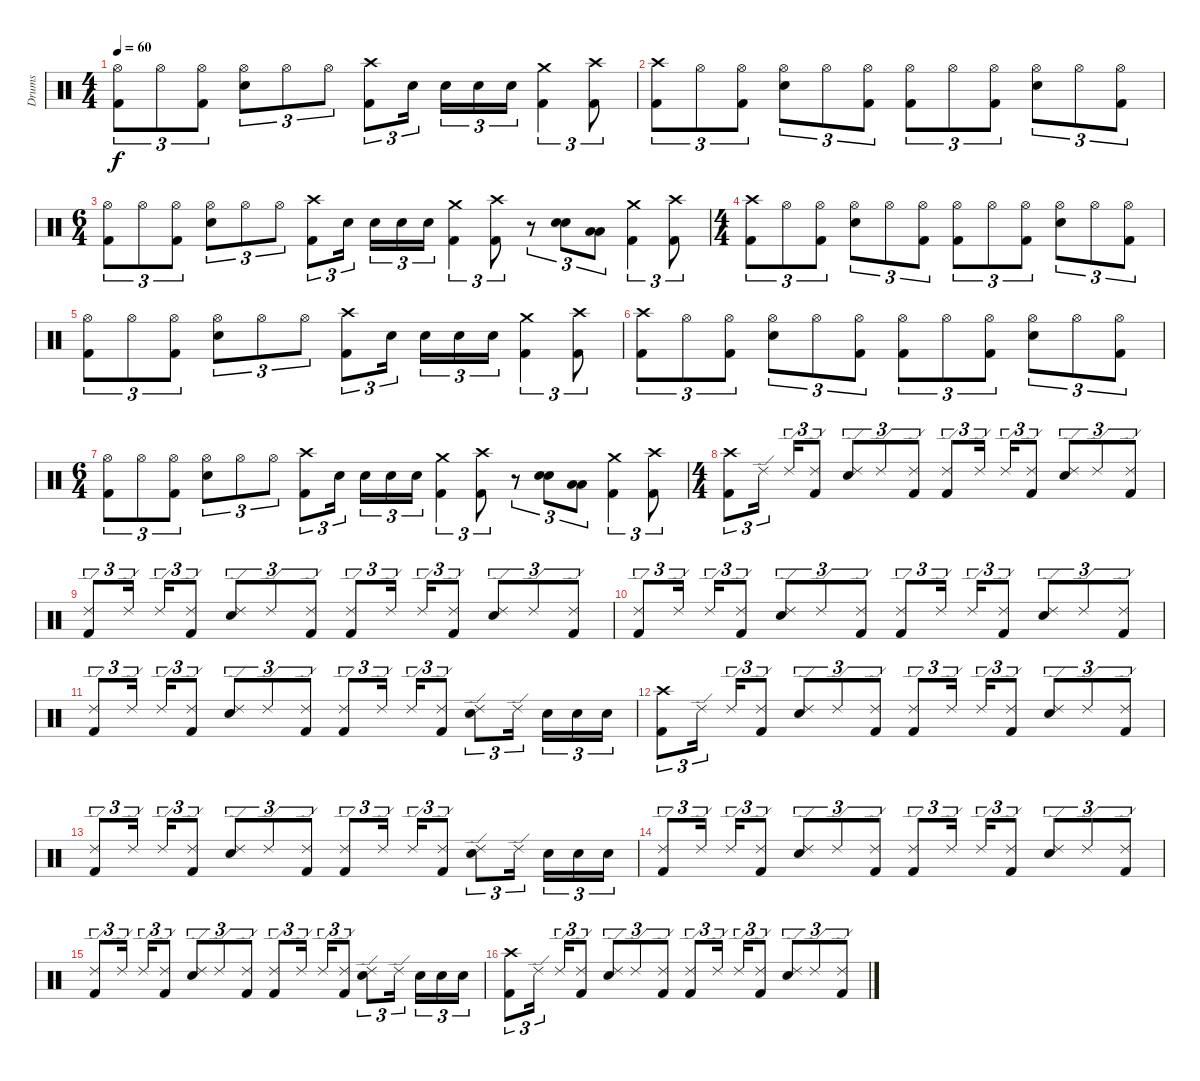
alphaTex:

\track ("Drums" "Drums") {instrument percussion}
\staff {score}
\articulation defaults
\ts (4 4)
\tempo 60
\clef neutral
\ks c
("Hi-Hat (open)" "Kick (hit) 2").8{tu (3 2) dy f} "Hi-Hat (open)".8{tu (3 2)} ("Hi-Hat (open)" "Kick (hit) 2").8{tu (3 2)} ("Hi-Hat (open)" "Electric Snare (hit)").8{tu (3 2)} "Hi-Hat (open)".8{tu (3 2)} "Hi-Hat (open)".8{tu (3 2)} ("Crash high (hit)" "Kick (hit) 2").8{tu (3 2)} "Electric Snare (hit)".16{tu (3 2)} "Electric Snare (hit)".16{tu (3 2)} "Electric Snare (hit)".16{tu (3 2)} "Electric Snare (hit)".16{tu (3 2)} ("Crash medium (hit)" "Kick (hit) 2").4{tu (3 2)} ("Crash high (hit)" "Kick (hit) 2").8{tu (3 2)} |
("Crash high (hit)" "Kick (hit) 2").8{tu (3 2)} "Hi-Hat (open)".8{tu (3 2)} ("Hi-Hat (open)" "Kick (hit) 2").8{tu (3 2)} ("Hi-Hat (open)" "Electric Snare (hit)").8{tu (3 2)} "Hi-Hat (open)".8{tu (3 2)} ("Hi-Hat (open)" "Kick (hit) 2").8{tu (3 2)} ("Hi-Hat (open)" "Kick (hit) 2").8{tu (3 2)} "Hi-Hat (open)".8{tu (3 2)} ("Hi-Hat (open)" "Kick (hit) 2").8{tu (3 2)} ("Hi-Hat (open)" "Electric Snare (hit)").8{tu (3 2)} "Hi-Hat (open)".8{tu (3 2)} ("Hi-Hat (open)" "Kick (hit) 2").8{tu (3 2)} |
\ts (6 4)
("Hi-Hat (open)" "Kick (hit) 2").8{tu (3 2)} "Hi-Hat (open)".8{tu (3 2)} ("Hi-Hat (open)" "Kick (hit) 2").8{tu (3 2)} ("Hi-Hat (open)" "Electric Snare (hit)").8{tu (3 2)} "Hi-Hat (open)".8{tu (3 2)} "Hi-Hat (open)".8{tu (3 2)} ("Crash high (hit)" "Kick (hit) 2").8{tu (3 2)} "Electric Snare (hit)".16{tu (3 2)} "Electric Snare (hit)".16{tu (3 2)} "Electric Snare (hit)".16{tu (3 2)} "Electric Snare (hit)".16{tu (3 2)} ("Crash medium (hit)" "Kick (hit) 2").4{tu (3 2)} ("Crash high (hit)" "Kick (hit) 2").8{tu (3 2)} r.8{tu (3 2)} ("Electric Snare (hit)" "Electric Snare (hit)").8{tu (3 2) bu 60} ("Low Tom (hit)" "Low Tom (hit)").8{tu (3 2) bu 60} ("Crash medium (hit)" "Kick (hit) 2").4{tu (3 2)} ("Crash high (hit)" "Kick (hit) 2").8{tu (3 2)} |
\ts (4 4)
("Crash high (hit)" "Kick (hit) 2").8{tu (3 2)} "Hi-Hat (open)".8{tu (3 2)} ("Hi-Hat (open)" "Kick (hit) 2").8{tu (3 2)} ("Hi-Hat (open)" "Electric Snare (hit)").8{tu (3 2)} "Hi-Hat (open)".8{tu (3 2)} ("Hi-Hat (open)" "Kick (hit) 2").8{tu (3 2)} ("Hi-Hat (open)" "Kick (hit) 2").8{tu (3 2)} "Hi-Hat (open)".8{tu (3 2)} ("Hi-Hat (open)" "Kick (hit) 2").8{tu (3 2)} ("Hi-Hat (open)" "Electric Snare (hit)").8{tu (3 2)} "Hi-Hat (open)".8{tu (3 2)} ("Hi-Hat (open)" "Kick (hit) 2").8{tu (3 2)} |
("Hi-Hat (open)" "Kick (hit) 2").8{tu (3 2)} "Hi-Hat (open)".8{tu (3 2)} ("Hi-Hat (open)" "Kick (hit) 2").8{tu (3 2)} ("Hi-Hat (open)" "Electric Snare (hit)").8{tu (3 2)} "Hi-Hat (open)".8{tu (3 2)} "Hi-Hat (open)".8{tu (3 2)} ("Crash high (hit)" "Kick (hit) 2").8{tu (3 2)} "Electric Snare (hit)".16{tu (3 2)} "Electric Snare (hit)".16{tu (3 2)} "Electric Snare (hit)".16{tu (3 2)} "Electric Snare (hit)".16{tu (3 2)} ("Crash medium (hit)" "Kick (hit) 2").4{tu (3 2)} ("Crash high (hit)" "Kick (hit) 2").8{tu (3 2)} |
("Crash high (hit)" "Kick (hit) 2").8{tu (3 2)} "Hi-Hat (open)".8{tu (3 2)} ("Hi-Hat (open)" "Kick (hit) 2").8{tu (3 2)} ("Hi-Hat (open)" "Electric Snare (hit)").8{tu (3 2)} "Hi-Hat (open)".8{tu (3 2)} ("Hi-Hat (open)" "Kick (hit) 2").8{tu (3 2)} ("Hi-Hat (open)" "Kick (hit) 2").8{tu (3 2)} "Hi-Hat (open)".8{tu (3 2)} ("Hi-Hat (open)" "Kick (hit) 2").8{tu (3 2)} ("Hi-Hat (open)" "Electric Snare (hit)").8{tu (3 2)} "Hi-Hat (open)".8{tu (3 2)} ("Hi-Hat (open)" "Kick (hit) 2").8{tu (3 2)} |
\ts (6 4)
("Hi-Hat (open)" "Kick (hit) 2").8{tu (3 2)} "Hi-Hat (open)".8{tu (3 2)} ("Hi-Hat (open)" "Kick (hit) 2").8{tu (3 2)} ("Hi-Hat (open)" "Electric Snare (hit)").8{tu (3 2)} "Hi-Hat (open)".8{tu (3 2)} "Hi-Hat (open)".8{tu (3 2)} ("Crash high (hit)" "Kick (hit) 2").8{tu (3 2)} "Electric Snare (hit)".16{tu (3 2)} "Electric Snare (hit)".16{tu (3 2)} "Electric Snare (hit)".16{tu (3 2)} "Electric Snare (hit)".16{tu (3 2)} ("Crash medium (hit)" "Kick (hit) 2").4{tu (3 2)} ("Crash high (hit)" "Kick (hit) 2").8{tu (3 2)} r.8{tu (3 2)} ("Electric Snare (hit)" "Electric Snare (hit)").8{tu (3 2) bu 60} ("Low Tom (hit)" "Low Tom (hit)").8{tu (3 2) bu 60} ("Crash medium (hit)" "Kick (hit) 2").4{tu (3 2)} ("Crash high (hit)" "Kick (hit) 2").8{tu (3 2)} |
\ts (4 4)
("Crash high (hit)" "Kick (hit) 2").8{tu (3 2)} "Ride (edge) 2".16{tu (3 2)} "Ride (edge) 2".16{tu (3 2)} ("Ride (edge) 2" "Kick (hit) 2").8{tu (3 2)} ("Ride (edge) 2" "Electric Snare (hit)").8{tu (3 2)} "Ride (edge) 2".8{tu (3 2)} ("Ride (edge) 2" "Kick (hit) 2").8{tu (3 2)} ("Ride (edge) 2" "Kick (hit) 2").8{tu (3 2)} "Ride (edge) 2".16{tu (3 2)} "Ride (edge) 2".16{tu (3 2)} ("Ride (edge) 2" "Kick (hit) 2").8{tu (3 2)} ("Ride (edge) 2" "Electric Snare (hit)").8{tu (3 2)} "Ride (edge) 2".8{tu (3 2)} ("Ride (edge) 2" "Kick (hit) 2").8{tu (3 2)} |
("Ride (edge) 2" "Kick (hit) 2").8{tu (3 2)} "Ride (edge) 2".16{tu (3 2)} "Ride (edge) 2".16{tu (3 2)} ("Ride (edge) 2" "Kick (hit) 2").8{tu (3 2)} ("Ride (edge) 2" "Electric Snare (hit)").8{tu (3 2)} "Ride (edge) 2".8{tu (3 2)} ("Ride (edge) 2" "Kick (hit) 2").8{tu (3 2)} ("Ride (edge) 2" "Kick (hit) 2").8{tu (3 2)} "Ride (edge) 2".16{tu (3 2)} "Ride (edge) 2".16{tu (3 2)} ("Ride (edge) 2" "Kick (hit) 2").8{tu (3 2)} ("Ride (edge) 2" "Electric Snare (hit)").8{tu (3 2)} "Ride (edge) 2".8{tu (3 2)} ("Ride (edge) 2" "Kick (hit) 2").8{tu (3 2)} |
("Ride (edge) 2" "Kick (hit) 2").8{tu (3 2)} "Ride (edge) 2".16{tu (3 2)} "Ride (edge) 2".16{tu (3 2)} ("Ride (edge) 2" "Kick (hit) 2").8{tu (3 2)} ("Ride (edge) 2" "Electric Snare (hit)").8{tu (3 2)} "Ride (edge) 2".8{tu (3 2)} ("Ride (edge) 2" "Kick (hit) 2").8{tu (3 2)} ("Ride (edge) 2" "Kick (hit) 2").8{tu (3 2)} "Ride (edge) 2".16{tu (3 2)} "Ride (edge) 2".16{tu (3 2)} ("Ride (edge) 2" "Kick (hit) 2").8{tu (3 2)} ("Ride (edge) 2" "Electric Snare (hit)").8{tu (3 2)} "Ride (edge) 2".8{tu (3 2)} ("Ride (edge) 2" "Kick (hit) 2").8{tu (3 2)} |
("Ride (edge) 2" "Kick (hit) 2").8{tu (3 2)} "Ride (edge) 2".16{tu (3 2)} "Ride (edge) 2".16{tu (3 2)} ("Ride (edge) 2" "Kick (hit) 2").8{tu (3 2)} ("Ride (edge) 2" "Electric Snare (hit)").8{tu (3 2)} "Ride (edge) 2".8{tu (3 2)} ("Ride (edge) 2" "Kick (hit) 2").8{tu (3 2)} ("Ride (edge) 2" "Kick (hit) 2").8{tu (3 2)} "Ride (edge) 2".16{tu (3 2)} "Ride (edge) 2".16{tu (3 2)} ("Ride (edge) 2" "Kick (hit) 2").8{tu (3 2)} ("Ride (edge) 2" "Electric Snare (hit)").8{tu (3 2)} "Ride (edge) 2".16{tu (3 2)} "Electric Snare (hit)".16{tu (3 2)} "Electric Snare (hit)".16{tu (3 2)} "Electric Snare (hit)".16{tu (3 2)} |
("Crash high (hit)" "Kick (hit) 2").8{tu (3 2)} "Ride (edge) 2".16{tu (3 2)} "Ride (edge) 2".16{tu (3 2)} ("Ride (edge) 2" "Kick (hit) 2").8{tu (3 2)} ("Ride (edge) 2" "Electric Snare (hit)").8{tu (3 2)} "Ride (edge) 2".8{tu (3 2)} ("Ride (edge) 2" "Kick (hit) 2").8{tu (3 2)} ("Ride (edge) 2" "Kick (hit) 2").8{tu (3 2)} "Ride (edge) 2".16{tu (3 2)} "Ride (edge) 2".16{tu (3 2)} ("Ride (edge) 2" "Kick (hit) 2").8{tu (3 2)} ("Ride (edge) 2" "Electric Snare (hit)").8{tu (3 2)} "Ride (edge) 2".8{tu (3 2)} ("Ride (edge) 2" "Kick (hit) 2").8{tu (3 2)} |
("Ride (edge) 2" "Kick (hit) 2").8{tu (3 2)} "Ride (edge) 2".16{tu (3 2)} "Ride (edge) 2".16{tu (3 2)} ("Ride (edge) 2" "Kick (hit) 2").8{tu (3 2)} ("Ride (edge) 2" "Electric Snare (hit)").8{tu (3 2)} "Ride (edge) 2".8{tu (3 2)} ("Ride (edge) 2" "Kick (hit) 2").8{tu (3 2)} ("Ride (edge) 2" "Kick (hit) 2").8{tu (3 2)} "Ride (edge) 2".16{tu (3 2)} "Ride (edge) 2".16{tu (3 2)} ("Ride (edge) 2" "Kick (hit) 2").8{tu (3 2)} ("Ride (edge) 2" "Electric Snare (hit)").8{tu (3 2)} "Ride (edge) 2".16{tu (3 2)} "Electric Snare (hit)".16{tu (3 2)} "Electric Snare (hit)".16{tu (3 2)} "Electric Snare (hit)".16{tu (3 2)} |
("Ride (edge) 2" "Kick (hit) 2").8{tu (3 2)} "Ride (edge) 2".16{tu (3 2)} "Ride (edge) 2".16{tu (3 2)} ("Ride (edge) 2" "Kick (hit) 2").8{tu (3 2)} ("Ride (edge) 2" "Electric Snare (hit)").8{tu (3 2)} "Ride (edge) 2".8{tu (3 2)} ("Ride (edge) 2" "Kick (hit) 2").8{tu (3 2)} ("Ride (edge) 2" "Kick (hit) 2").8{tu (3 2)} "Ride (edge) 2".16{tu (3 2)} "Ride (edge) 2".16{tu (3 2)} ("Ride (edge) 2" "Kick (hit) 2").8{tu (3 2)} ("Ride (edge) 2" "Electric Snare (hit)").8{tu (3 2)} "Ride (edge) 2".8{tu (3 2)} ("Ride (edge) 2" "Kick (hit) 2").8{tu (3 2)} |
("Ride (edge) 2" "Kick (hit) 2").8{tu (3 2)} "Ride (edge) 2".16{tu (3 2)} "Ride (edge) 2".16{tu (3 2)} ("Ride (edge) 2" "Kick (hit) 2").8{tu (3 2)} ("Ride (edge) 2" "Electric Snare (hit)").8{tu (3 2)} "Ride (edge) 2".8{tu (3 2)} ("Ride (edge) 2" "Kick (hit) 2").8{tu (3 2)} ("Ride (edge) 2" "Kick (hit) 2").8{tu (3 2)} "Ride (edge) 2".16{tu (3 2)} "Ride (edge) 2".16{tu (3 2)} ("Ride (edge) 2" "Kick (hit) 2").8{tu (3 2)} ("Ride (edge) 2" "Electric Snare (hit)").8{tu (3 2)} "Ride (edge) 2".16{tu (3 2)} "Electric Snare (hit)".16{tu (3 2)} "Electric Snare (hit)".16{tu (3 2)} "Electric Snare (hit)".16{tu (3 2)} |
("Crash high (hit)" "Kick (hit) 2").8{tu (3 2)} "Ride (edge) 2".16{tu (3 2)} "Ride (edge) 2".16{tu (3 2)} ("Ride (edge) 2" "Kick (hit) 2").8{tu (3 2)} ("Ride (edge) 2" "Electric Snare (hit)").8{tu (3 2)} "Ride (edge) 2".8{tu (3 2)} ("Ride (edge) 2" "Kick (hit) 2").8{tu (3 2)} ("Ride (edge) 2" "Kick (hit) 2").8{tu (3 2)} "Ride (edge) 2".16{tu (3 2)} "Ride (edge) 2".16{tu (3 2)} ("Ride (edge) 2" "Kick (hit) 2").8{tu (3 2)} ("Ride (edge) 2" "Electric Snare (hit)").8{tu (3 2)} "Ride (edge) 2".8{tu (3 2)} ("Ride (edge) 2" "Kick (hit) 2").8{tu (3 2)}
